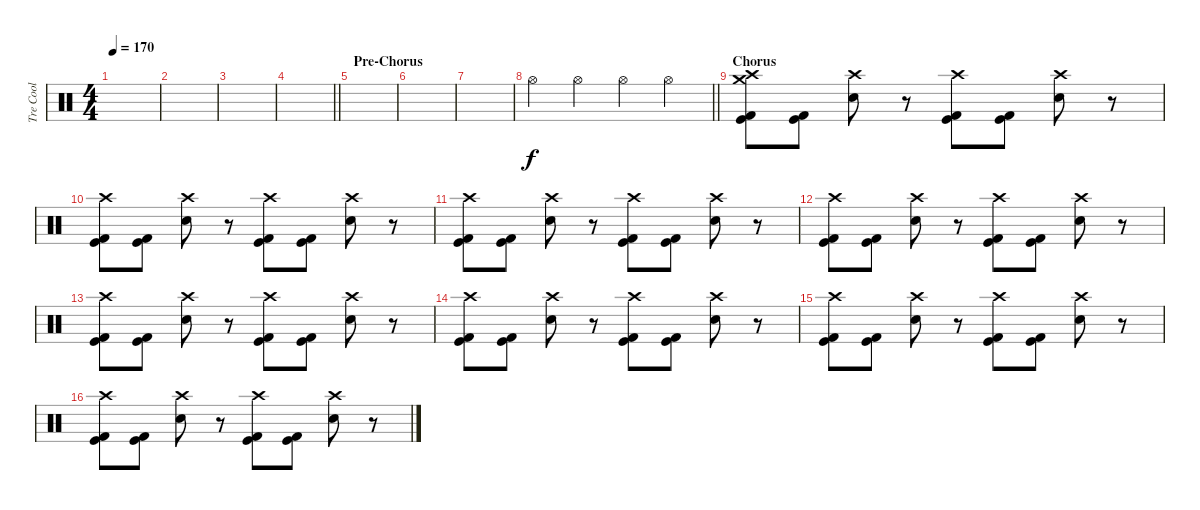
\track ("Tre Cool" "Tre Cool") {instrument percussion}
\staff {score}
\articulation defaults
\ts (4 4)
\tempo 170
\clef neutral
\ks c
|
|
|
\barLineRight lightlight
|
\section ("" "Pre-Chorus")
|
|
|
\barLineRight lightlight "Hi-Hat (open)".4 "Hi-Hat (open)".4 "Hi-Hat (open)".4 "Hi-Hat (open)".4
|
\section ("" "Chorus")
("Crash high (hit)" "Crash medium (hit)" "Kick (hit)" "Kick (hit) 2").8 ("Kick (hit)" "Kick (hit) 2").8 ("Crash high (hit)" "Electric Snare (hit)").8 r.8 ("Crash high (hit)" "Kick (hit)" "Kick (hit) 2").8 ("Kick (hit)" "Kick (hit) 2").8 ("Crash high (hit)" "Electric Snare (hit)").8 r.8 |
("Crash high (hit)" "Kick (hit)" "Kick (hit) 2").8 ("Kick (hit)" "Kick (hit) 2").8 ("Crash high (hit)" "Electric Snare (hit)").8 r.8 ("Crash high (hit)" "Kick (hit)" "Kick (hit) 2").8 ("Kick (hit)" "Kick (hit) 2").8 ("Crash high (hit)" "Electric Snare (hit)").8 r.8 |
("Crash high (hit)" "Kick (hit)" "Kick (hit) 2").8 ("Kick (hit)" "Kick (hit) 2").8 ("Crash high (hit)" "Electric Snare (hit)").8 r.8 ("Crash high (hit)" "Kick (hit)" "Kick (hit) 2").8 ("Kick (hit)" "Kick (hit) 2").8 ("Crash high (hit)" "Electric Snare (hit)").8 r.8 |
("Crash high (hit)" "Kick (hit)" "Kick (hit) 2").8 ("Kick (hit)" "Kick (hit) 2").8 ("Crash high (hit)" "Electric Snare (hit)").8 r.8 ("Crash high (hit)" "Kick (hit)" "Kick (hit) 2").8 ("Kick (hit)" "Kick (hit) 2").8 ("Crash high (hit)" "Electric Snare (hit)").8 r.8 |
("Crash high (hit)" "Kick (hit)" "Kick (hit) 2").8 ("Kick (hit)" "Kick (hit) 2").8 ("Crash high (hit)" "Electric Snare (hit)").8 r.8 ("Crash high (hit)" "Kick (hit)" "Kick (hit) 2").8 ("Kick (hit)" "Kick (hit) 2").8 ("Crash high (hit)" "Electric Snare (hit)").8 r.8 |
("Crash high (hit)" "Kick (hit)" "Kick (hit) 2").8 ("Kick (hit)" "Kick (hit) 2").8 ("Crash high (hit)" "Electric Snare (hit)").8 r.8 ("Crash high (hit)" "Kick (hit)" "Kick (hit) 2").8 ("Kick (hit)" "Kick (hit) 2").8 ("Crash high (hit)" "Electric Snare (hit)").8 r.8 |
("Crash high (hit)" "Kick (hit)" "Kick (hit) 2").8 ("Kick (hit)" "Kick (hit) 2").8 ("Crash high (hit)" "Electric Snare (hit)").8 r.8 ("Crash high (hit)" "Kick (hit)" "Kick (hit) 2").8 ("Kick (hit)" "Kick (hit) 2").8 ("Crash high (hit)" "Electric Snare (hit)").8 r.8 |
("Crash high (hit)" "Kick (hit)" "Kick (hit) 2").8 ("Kick (hit)" "Kick (hit) 2").8 ("Crash high (hit)" "Electric Snare (hit)").8 r.8 ("Crash high (hit)" "Kick (hit)" "Kick (hit) 2").8 ("Kick (hit)" "Kick (hit) 2").8 ("Crash high (hit)" "Electric Snare (hit)").8 r.8
